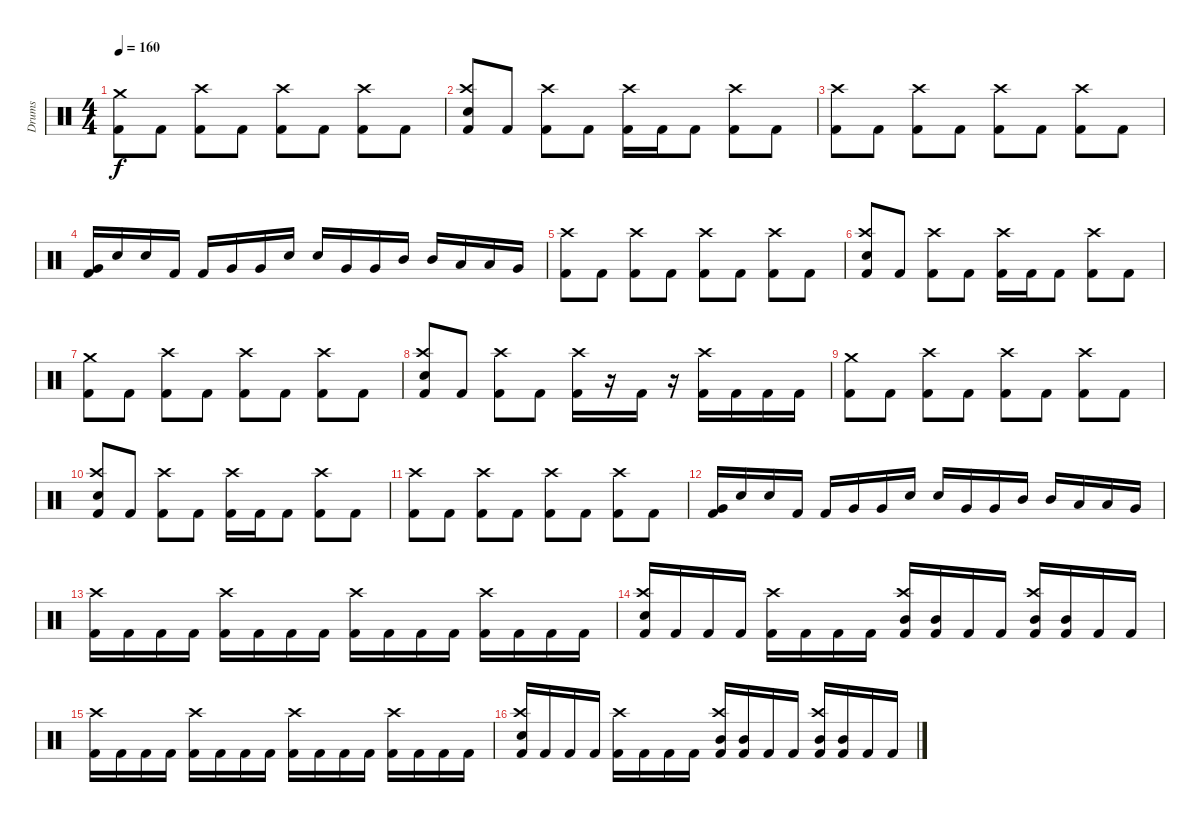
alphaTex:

\track ("Drums" "Drums") {instrument percussion}
\staff {score}
\articulation defaults
\ts (4 4)
\tempo 160
\clef neutral
\ks c
("Crash medium (hit)" "Kick (hit) 2").8{dy f} "Kick (hit) 2".8 ("Crash high (hit)" "Kick (hit) 2").8 "Kick (hit) 2".8 ("Crash high (hit)" "Kick (hit) 2").8 "Kick (hit) 2".8 ("Crash high (hit)" "Kick (hit) 2").8 "Kick (hit) 2".8 |
("Crash high (hit)" "Electric Snare (hit)" "Kick (hit) 2").8 "Kick (hit) 2".8 ("Crash high (hit)" "Kick (hit) 2").8 "Kick (hit) 2".8 ("Crash high (hit)" "Kick (hit) 2").16 "Kick (hit) 2".16 "Kick (hit) 2".8 ("Crash high (hit)" "Kick (hit) 2").8 "Kick (hit) 2".8 |
("Crash high (hit)" "Kick (hit) 2").8 "Kick (hit) 2".8 ("Crash high (hit)" "Kick (hit) 2").8 "Kick (hit) 2".8 ("Crash high (hit)" "Kick (hit) 2").8 "Kick (hit) 2".8 ("Crash high (hit)" "Kick (hit) 2").8 "Kick (hit) 2".8 |
("Very Low Tom (hit)" "Kick (hit) 2").16 "Electric Snare (hit)".16 "Electric Snare (hit)".16 "Kick (hit) 2".16 "Kick (hit) 2".16 "Very Low Tom (hit)".16 "Very Low Tom (hit)".16 "Electric Snare (hit)".16 "Electric Snare (hit)".16 "Very Low Tom (hit)".16 "Very Low Tom (hit)".16 "Mid Tom (hit)".16 "Mid Tom (hit)".16 "Low Tom (hit)".16 "Low Tom (hit)".16 "Very Low Tom (hit)".16 |
("Crash high (hit)" "Kick (hit) 2").8 "Kick (hit) 2".8 ("Crash high (hit)" "Kick (hit) 2").8 "Kick (hit) 2".8 ("Crash high (hit)" "Kick (hit) 2").8 "Kick (hit) 2".8 ("Crash high (hit)" "Kick (hit) 2").8 "Kick (hit) 2".8 |
("Crash high (hit)" "Electric Snare (hit)" "Kick (hit) 2").8 "Kick (hit) 2".8 ("Crash high (hit)" "Kick (hit) 2").8 "Kick (hit) 2".8 ("Crash high (hit)" "Kick (hit) 2").16 "Kick (hit) 2".16 "Kick (hit) 2".8 ("Crash high (hit)" "Kick (hit) 2").8 "Kick (hit) 2".8 |
("Crash medium (hit)" "Kick (hit) 2").8 "Kick (hit) 2".8 ("Crash high (hit)" "Kick (hit) 2").8 "Kick (hit) 2".8 ("Crash high (hit)" "Kick (hit) 2").8 "Kick (hit) 2".8 ("Crash high (hit)" "Kick (hit) 2").8 "Kick (hit) 2".8 |
("Crash high (hit)" "Electric Snare (hit)" "Kick (hit) 2").8 "Kick (hit) 2".8 ("Crash high (hit)" "Kick (hit) 2").8 "Kick (hit) 2".8 ("Crash high (hit)" "Kick (hit) 2").16 r.16 "Kick (hit) 2".16 r.16 ("Crash high (hit)" "Kick (hit) 2").16 "Kick (hit) 2".16 "Kick (hit) 2".16 "Kick (hit) 2".16 |
("Crash medium (hit)" "Kick (hit) 2").8 "Kick (hit) 2".8 ("Crash high (hit)" "Kick (hit) 2").8 "Kick (hit) 2".8 ("Crash high (hit)" "Kick (hit) 2").8 "Kick (hit) 2".8 ("Crash high (hit)" "Kick (hit) 2").8 "Kick (hit) 2".8 |
("Crash high (hit)" "Electric Snare (hit)" "Kick (hit) 2").8 "Kick (hit) 2".8 ("Crash high (hit)" "Kick (hit) 2").8 "Kick (hit) 2".8 ("Crash high (hit)" "Kick (hit) 2").16 "Kick (hit) 2".16 "Kick (hit) 2".8 ("Crash high (hit)" "Kick (hit) 2").8 "Kick (hit) 2".8 |
("Crash high (hit)" "Kick (hit) 2").8 "Kick (hit) 2".8 ("Crash high (hit)" "Kick (hit) 2").8 "Kick (hit) 2".8 ("Crash high (hit)" "Kick (hit) 2").8 "Kick (hit) 2".8 ("Crash high (hit)" "Kick (hit) 2").8 "Kick (hit) 2".8 |
("Very Low Tom (hit)" "Kick (hit) 2").16 "Electric Snare (hit)".16 "Electric Snare (hit)".16 "Kick (hit) 2".16 "Kick (hit) 2".16 "Very Low Tom (hit)".16 "Very Low Tom (hit)".16 "Electric Snare (hit)".16 "Electric Snare (hit)".16 "Very Low Tom (hit)".16 "Very Low Tom (hit)".16 "Mid Tom (hit)".16 "Mid Tom (hit)".16 "Low Tom (hit)".16 "Low Tom (hit)".16 "Very Low Tom (hit)".16 |
("Crash high (hit)" "Kick (hit) 2").16 "Kick (hit) 2".16 "Kick (hit) 2".16 "Kick (hit) 2".16 ("Crash high (hit)" "Kick (hit) 2").16 "Kick (hit) 2".16 "Kick (hit) 2".16 "Kick (hit) 2".16 ("Crash high (hit)" "Kick (hit) 2").16 "Kick (hit) 2".16 "Kick (hit) 2".16 "Kick (hit) 2".16 ("Crash high (hit)" "Kick (hit) 2").16 "Kick (hit) 2".16 "Kick (hit) 2".16 "Kick (hit) 2".16 |
("Crash high (hit)" "Electric Snare (hit)" "Kick (hit) 2").16 "Kick (hit) 2".16 "Kick (hit) 2".16 "Kick (hit) 2".16 ("Crash high (hit)" "Kick (hit) 2").16 "Kick (hit) 2".16 "Kick (hit) 2".16 "Kick (hit) 2".16 ("Crash high (hit)" "Mid Tom (hit)" "Kick (hit) 2").16 ("Mid Tom (hit)" "Kick (hit) 2").16 "Kick (hit) 2".16 "Kick (hit) 2".16 ("Crash high (hit)" "Mid Tom (hit)" "Kick (hit) 2").16 ("Mid Tom (hit)" "Kick (hit) 2").16 "Kick (hit) 2".16 "Kick (hit) 2".16 |
("Crash high (hit)" "Kick (hit) 2").16 "Kick (hit) 2".16 "Kick (hit) 2".16 "Kick (hit) 2".16 ("Crash high (hit)" "Kick (hit) 2").16 "Kick (hit) 2".16 "Kick (hit) 2".16 "Kick (hit) 2".16 ("Crash high (hit)" "Kick (hit) 2").16 "Kick (hit) 2".16 "Kick (hit) 2".16 "Kick (hit) 2".16 ("Crash high (hit)" "Kick (hit) 2").16 "Kick (hit) 2".16 "Kick (hit) 2".16 "Kick (hit) 2".16 |
("Crash high (hit)" "Electric Snare (hit)" "Kick (hit) 2").16 "Kick (hit) 2".16 "Kick (hit) 2".16 "Kick (hit) 2".16 ("Crash high (hit)" "Kick (hit) 2").16 "Kick (hit) 2".16 "Kick (hit) 2".16 "Kick (hit) 2".16 ("Crash high (hit)" "Mid Tom (hit)" "Kick (hit) 2").16 ("Mid Tom (hit)" "Kick (hit) 2").16 "Kick (hit) 2".16 "Kick (hit) 2".16 ("Crash high (hit)" "Mid Tom (hit)" "Kick (hit) 2").16 ("Mid Tom (hit)" "Kick (hit) 2").16 "Kick (hit) 2".16 "Kick (hit) 2".16
